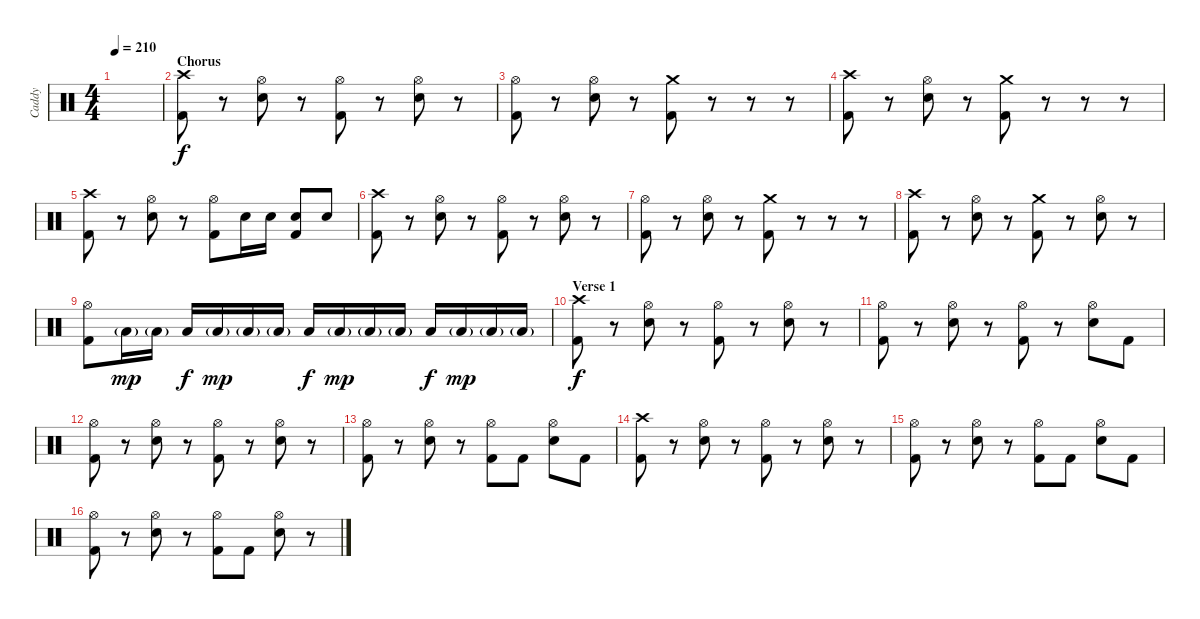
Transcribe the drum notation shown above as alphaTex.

\track ("Caddy" "Caddy") {instrument percussion}
\staff {score}
\articulation defaults
\ts (4 4)
\tempo 210
\clef neutral
\ks c
|
\section ("" "Chorus")
("Crash high (hit)" "Kick (hit) 2").8 r.8 ("Hi-Hat (open)" "Electric Snare (hit)").8 r.8 ("Hi-Hat (open)" "Kick (hit) 2").8 r.8 ("Hi-Hat (open)" "Electric Snare (hit)").8 r.8 |
("Hi-Hat (open)" "Kick (hit) 2").8 r.8 ("Hi-Hat (open)" "Electric Snare (hit)").8 r.8 ("Crash medium (hit)" "Kick (hit) 2").8 r.8 r.8 r.8 |
("Crash high (hit)" "Kick (hit) 2").8 r.8 ("Hi-Hat (open)" "Electric Snare (hit)").8 r.8 ("Crash medium (hit)" "Kick (hit) 2").8 r.8 r.8 r.8 |
("Crash high (hit)" "Kick (hit) 2").8 r.8 ("Hi-Hat (open)" "Electric Snare (hit)").8 r.8 ("Hi-Hat (open)" "Kick (hit) 2").8 "Electric Snare (hit)".16 "Electric Snare (hit)".16 ("Electric Snare (hit)" "Kick (hit) 2").8 "Electric Snare (hit)".8 |
("Crash high (hit)" "Kick (hit) 2").8 r.8 ("Hi-Hat (open)" "Electric Snare (hit)").8 r.8 ("Hi-Hat (open)" "Kick (hit) 2").8 r.8 ("Hi-Hat (open)" "Electric Snare (hit)").8 r.8 |
("Hi-Hat (open)" "Kick (hit) 2").8 r.8 ("Hi-Hat (open)" "Electric Snare (hit)").8 r.8 ("Crash medium (hit)" "Kick (hit) 2").8 r.8 r.8 r.8 |
("Crash high (hit)" "Kick (hit) 2").8 r.8 ("Hi-Hat (open)" "Electric Snare (hit)").8 r.8 ("Crash medium (hit)" "Kick (hit) 2").8 r.8 ("Hi-Hat (open)" "Electric Snare (hit)").8 r.8 |
("Hi-Hat (open)" "Kick (hit) 2").8 "Low Floor Tom (hit)"{g}.16{dy mp} "Low Floor Tom (hit)"{g}.16 "Low Floor Tom (hit)".16{dy f} "Low Floor Tom (hit)"{g}.16{dy mp} "Low Floor Tom (hit)"{g}.16 "Low Floor Tom (hit)"{g}.16 "Low Floor Tom (hit)".16{dy f} "Low Floor Tom (hit)"{g}.16{dy mp} "Low Floor Tom (hit)"{g}.16 "Low Floor Tom (hit)"{g}.16 "Low Floor Tom (hit)".16{dy f} "Low Floor Tom (hit)"{g}.16{dy mp} "Low Floor Tom (hit)"{g}.16 "Low Floor Tom (hit)"{g}.16 |
\section ("" "Verse 1")
("Crash high (hit)" "Kick (hit) 2").8{dy f} r.8 ("Hi-Hat (open)" "Electric Snare (hit)").8 r.8 ("Hi-Hat (open)" "Kick (hit) 2").8 r.8 ("Hi-Hat (open)" "Electric Snare (hit)").8 r.8 |
("Hi-Hat (open)" "Kick (hit) 2").8 r.8 ("Hi-Hat (open)" "Electric Snare (hit)").8 r.8 ("Hi-Hat (open)" "Kick (hit) 2").8 r.8 ("Hi-Hat (open)" "Electric Snare (hit)").8 "Kick (hit) 2".8 |
("Hi-Hat (open)" "Kick (hit) 2").8 r.8 ("Hi-Hat (open)" "Electric Snare (hit)").8 r.8 ("Hi-Hat (open)" "Kick (hit) 2").8 r.8 ("Hi-Hat (open)" "Electric Snare (hit)").8 r.8 |
("Hi-Hat (open)" "Kick (hit) 2").8 r.8 ("Hi-Hat (open)" "Electric Snare (hit)").8 r.8 ("Hi-Hat (open)" "Kick (hit) 2").8 "Kick (hit) 2".8 ("Hi-Hat (open)" "Electric Snare (hit)").8 "Kick (hit) 2".8 |
("Crash high (hit)" "Kick (hit) 2").8 r.8 ("Hi-Hat (open)" "Electric Snare (hit)").8 r.8 ("Hi-Hat (open)" "Kick (hit) 2").8 r.8 ("Hi-Hat (open)" "Electric Snare (hit)").8 r.8 |
("Hi-Hat (open)" "Kick (hit) 2").8 r.8 ("Hi-Hat (open)" "Electric Snare (hit)").8 r.8 ("Hi-Hat (open)" "Kick (hit) 2").8 "Kick (hit) 2".8 ("Hi-Hat (open)" "Electric Snare (hit)").8 "Kick (hit) 2".8 |
("Hi-Hat (open)" "Kick (hit) 2").8 r.8 ("Hi-Hat (open)" "Electric Snare (hit)").8 r.8 ("Hi-Hat (open)" "Kick (hit) 2").8 "Kick (hit) 2".8 ("Hi-Hat (open)" "Electric Snare (hit)").8 r.8
